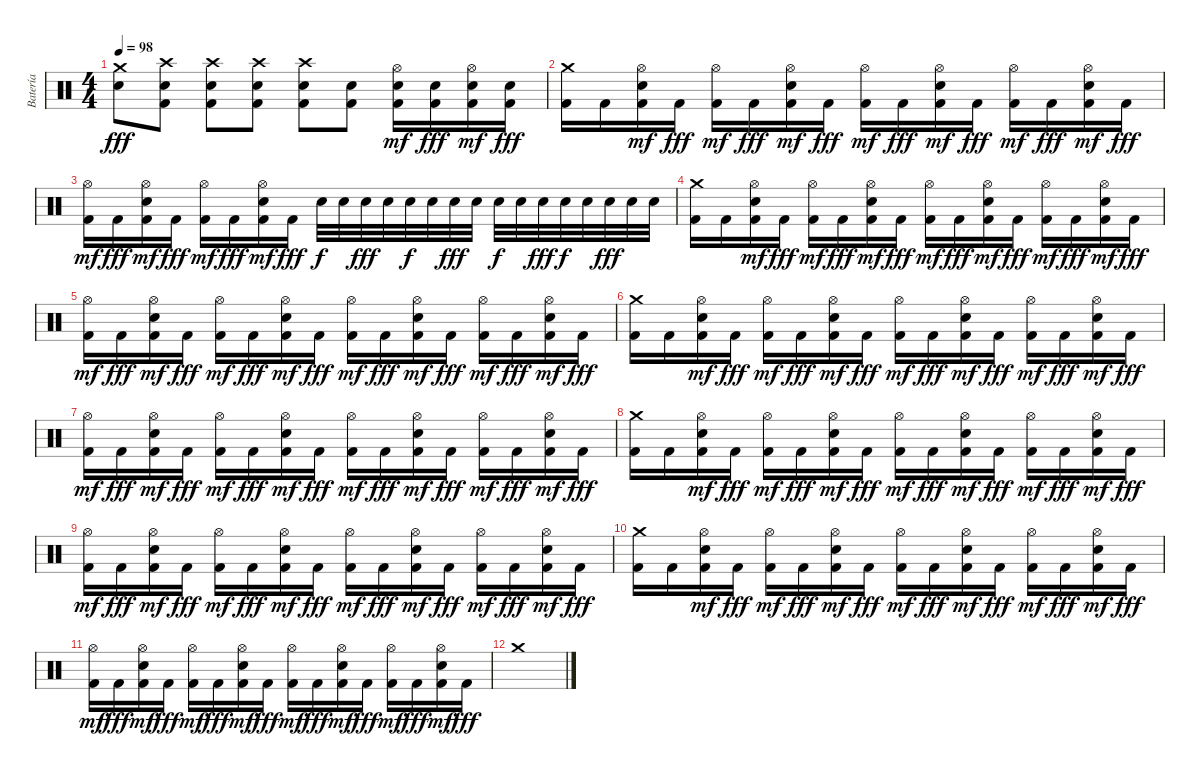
\track ("Batería" "Batería") {instrument percussion}
\staff {score}
\articulation defaults
\ts (4 4)
\tempo 98
\clef neutral
\ks c
("Electric Snare (hit)" "Crash medium (hit)").8{dy fff} ("Kick (hit) 2" "Electric Snare (hit)" "Crash high (hit)").8 ("Kick (hit) 2" "Electric Snare (hit)" "Crash high (hit)").8 ("Kick (hit) 2" "Electric Snare (hit)" "Crash high (hit)").8 ("Kick (hit) 2" "Electric Snare (hit)" "Crash high (hit)").8 ("Kick (hit) 2" "Electric Snare (hit)").8 ("Kick (hit) 2" "Electric Snare (hit)" "Hi-Hat (open)").16{dy mf} ("Kick (hit) 2" "Electric Snare (hit)").16{dy fff} ("Kick (hit) 2" "Electric Snare (hit)" "Hi-Hat (open)").16{dy mf} ("Kick (hit) 2" "Electric Snare (hit)").16{dy fff} |
("Kick (hit) 2" "Crash medium (hit)").16 "Kick (hit) 2".16 ("Kick (hit) 2" "Electric Snare (hit)" "Hi-Hat (open)").16{dy mf} "Kick (hit) 2".16{dy fff} ("Kick (hit) 2" "Hi-Hat (open)").16{dy mf} "Kick (hit) 2".16{dy fff} ("Kick (hit) 2" "Electric Snare (hit)" "Hi-Hat (open)").16{dy mf} "Kick (hit) 2".16{dy fff} ("Kick (hit) 2" "Hi-Hat (open)").16{dy mf} "Kick (hit) 2".16{dy fff} ("Kick (hit) 2" "Electric Snare (hit)" "Hi-Hat (open)").16{dy mf} "Kick (hit) 2".16{dy fff} ("Kick (hit) 2" "Hi-Hat (open)").16{dy mf} "Kick (hit) 2".16{dy fff} ("Kick (hit) 2" "Electric Snare (hit)" "Hi-Hat (open)").16{dy mf} "Kick (hit) 2".16{dy fff} |
("Kick (hit) 2" "Hi-Hat (open)").16{dy mf} "Kick (hit) 2".16{dy fff} ("Kick (hit) 2" "Electric Snare (hit)" "Hi-Hat (open)").16{dy mf} "Kick (hit) 2".16{dy fff} ("Kick (hit) 2" "Hi-Hat (open)").16{dy mf} "Kick (hit) 2".16{dy fff} ("Kick (hit) 2" "Electric Snare (hit)" "Hi-Hat (open)").16{dy mf} "Kick (hit) 2".16{dy fff} "Electric Snare (hit)".32{dy f} "Electric Snare (hit)".32 "Electric Snare (hit)".32{dy fff} "Electric Snare (hit)".32 "Electric Snare (hit)".32{dy f} "Electric Snare (hit)".32 "Electric Snare (hit)".32{dy fff} "Electric Snare (hit)".32 "Electric Snare (hit)".32{dy f} "Electric Snare (hit)".32 "Electric Snare (hit)".32{dy fff} "Electric Snare (hit)".32{dy f} "Electric Snare (hit)".32 "Electric Snare (hit)".32{dy fff} "Electric Snare (hit)".32 "Electric Snare (hit)".32 |
("Kick (hit) 2" "Crash medium (hit)").16 "Kick (hit) 2".16 ("Kick (hit) 2" "Electric Snare (hit)" "Hi-Hat (open)").16{dy mf} "Kick (hit) 2".16{dy fff} ("Kick (hit) 2" "Hi-Hat (open)").16{dy mf} "Kick (hit) 2".16{dy fff} ("Kick (hit) 2" "Electric Snare (hit)" "Hi-Hat (open)").16{dy mf} "Kick (hit) 2".16{dy fff} ("Kick (hit) 2" "Hi-Hat (open)").16{dy mf} "Kick (hit) 2".16{dy fff} ("Kick (hit) 2" "Electric Snare (hit)" "Hi-Hat (open)").16{dy mf} "Kick (hit) 2".16{dy fff} ("Kick (hit) 2" "Hi-Hat (open)").16{dy mf} "Kick (hit) 2".16{dy fff} ("Kick (hit) 2" "Electric Snare (hit)" "Hi-Hat (open)").16{dy mf} "Kick (hit) 2".16{dy fff} |
("Kick (hit) 2" "Hi-Hat (open)").16{dy mf} "Kick (hit) 2".16{dy fff} ("Kick (hit) 2" "Electric Snare (hit)" "Hi-Hat (open)").16{dy mf} "Kick (hit) 2".16{dy fff} ("Kick (hit) 2" "Hi-Hat (open)").16{dy mf} "Kick (hit) 2".16{dy fff} ("Kick (hit) 2" "Electric Snare (hit)" "Hi-Hat (open)").16{dy mf} "Kick (hit) 2".16{dy fff} ("Kick (hit) 2" "Hi-Hat (open)").16{dy mf} "Kick (hit) 2".16{dy fff} ("Kick (hit) 2" "Electric Snare (hit)" "Hi-Hat (open)").16{dy mf} "Kick (hit) 2".16{dy fff} ("Kick (hit) 2" "Hi-Hat (open)").16{dy mf} "Kick (hit) 2".16{dy fff} ("Kick (hit) 2" "Electric Snare (hit)" "Hi-Hat (open)").16{dy mf} "Kick (hit) 2".16{dy fff} |
("Kick (hit) 2" "Crash medium (hit)").16 "Kick (hit) 2".16 ("Kick (hit) 2" "Electric Snare (hit)" "Hi-Hat (open)").16{dy mf} "Kick (hit) 2".16{dy fff} ("Kick (hit) 2" "Hi-Hat (open)").16{dy mf} "Kick (hit) 2".16{dy fff} ("Kick (hit) 2" "Electric Snare (hit)" "Hi-Hat (open)").16{dy mf} "Kick (hit) 2".16{dy fff} ("Kick (hit) 2" "Hi-Hat (open)").16{dy mf} "Kick (hit) 2".16{dy fff} ("Kick (hit) 2" "Electric Snare (hit)" "Hi-Hat (open)").16{dy mf} "Kick (hit) 2".16{dy fff} ("Kick (hit) 2" "Hi-Hat (open)").16{dy mf} "Kick (hit) 2".16{dy fff} ("Kick (hit) 2" "Electric Snare (hit)" "Hi-Hat (open)").16{dy mf} "Kick (hit) 2".16{dy fff} |
("Kick (hit) 2" "Hi-Hat (open)").16{dy mf} "Kick (hit) 2".16{dy fff} ("Kick (hit) 2" "Electric Snare (hit)" "Hi-Hat (open)").16{dy mf} "Kick (hit) 2".16{dy fff} ("Kick (hit) 2" "Hi-Hat (open)").16{dy mf} "Kick (hit) 2".16{dy fff} ("Kick (hit) 2" "Electric Snare (hit)" "Hi-Hat (open)").16{dy mf} "Kick (hit) 2".16{dy fff} ("Kick (hit) 2" "Hi-Hat (open)").16{dy mf} "Kick (hit) 2".16{dy fff} ("Kick (hit) 2" "Electric Snare (hit)" "Hi-Hat (open)").16{dy mf} "Kick (hit) 2".16{dy fff} ("Kick (hit) 2" "Hi-Hat (open)").16{dy mf} "Kick (hit) 2".16{dy fff} ("Kick (hit) 2" "Electric Snare (hit)" "Hi-Hat (open)").16{dy mf} "Kick (hit) 2".16{dy fff} |
("Kick (hit) 2" "Crash medium (hit)").16 "Kick (hit) 2".16 ("Kick (hit) 2" "Electric Snare (hit)" "Hi-Hat (open)").16{dy mf} "Kick (hit) 2".16{dy fff} ("Kick (hit) 2" "Hi-Hat (open)").16{dy mf} "Kick (hit) 2".16{dy fff} ("Kick (hit) 2" "Electric Snare (hit)" "Hi-Hat (open)").16{dy mf} "Kick (hit) 2".16{dy fff} ("Kick (hit) 2" "Hi-Hat (open)").16{dy mf} "Kick (hit) 2".16{dy fff} ("Kick (hit) 2" "Electric Snare (hit)" "Hi-Hat (open)").16{dy mf} "Kick (hit) 2".16{dy fff} ("Kick (hit) 2" "Hi-Hat (open)").16{dy mf} "Kick (hit) 2".16{dy fff} ("Kick (hit) 2" "Electric Snare (hit)" "Hi-Hat (open)").16{dy mf} "Kick (hit) 2".16{dy fff} |
("Kick (hit) 2" "Hi-Hat (open)").16{dy mf} "Kick (hit) 2".16{dy fff} ("Kick (hit) 2" "Electric Snare (hit)" "Hi-Hat (open)").16{dy mf} "Kick (hit) 2".16{dy fff} ("Kick (hit) 2" "Hi-Hat (open)").16{dy mf} "Kick (hit) 2".16{dy fff} ("Kick (hit) 2" "Electric Snare (hit)" "Hi-Hat (open)").16{dy mf} "Kick (hit) 2".16{dy fff} ("Kick (hit) 2" "Hi-Hat (open)").16{dy mf} "Kick (hit) 2".16{dy fff} ("Kick (hit) 2" "Electric Snare (hit)" "Hi-Hat (open)").16{dy mf} "Kick (hit) 2".16{dy fff} ("Kick (hit) 2" "Hi-Hat (open)").16{dy mf} "Kick (hit) 2".16{dy fff} ("Kick (hit) 2" "Electric Snare (hit)" "Hi-Hat (open)").16{dy mf} "Kick (hit) 2".16{dy fff} |
("Kick (hit) 2" "Crash medium (hit)").16 "Kick (hit) 2".16 ("Kick (hit) 2" "Electric Snare (hit)" "Hi-Hat (open)").16{dy mf} "Kick (hit) 2".16{dy fff} ("Kick (hit) 2" "Hi-Hat (open)").16{dy mf} "Kick (hit) 2".16{dy fff} ("Kick (hit) 2" "Electric Snare (hit)" "Hi-Hat (open)").16{dy mf} "Kick (hit) 2".16{dy fff} ("Kick (hit) 2" "Hi-Hat (open)").16{dy mf} "Kick (hit) 2".16{dy fff} ("Kick (hit) 2" "Electric Snare (hit)" "Hi-Hat (open)").16{dy mf} "Kick (hit) 2".16{dy fff} ("Kick (hit) 2" "Hi-Hat (open)").16{dy mf} "Kick (hit) 2".16{dy fff} ("Kick (hit) 2" "Electric Snare (hit)" "Hi-Hat (open)").16{dy mf} "Kick (hit) 2".16{dy fff} |
("Kick (hit) 2" "Hi-Hat (open)").16{dy mf} "Kick (hit) 2".16{dy fff} ("Kick (hit) 2" "Electric Snare (hit)" "Hi-Hat (open)").16{dy mf} "Kick (hit) 2".16{dy fff} ("Kick (hit) 2" "Hi-Hat (open)").16{dy mf} "Kick (hit) 2".16{dy fff} ("Kick (hit) 2" "Electric Snare (hit)" "Hi-Hat (open)").16{dy mf} "Kick (hit) 2".16{dy fff} ("Kick (hit) 2" "Hi-Hat (open)").16{dy mf} "Kick (hit) 2".16{dy fff} ("Kick (hit) 2" "Electric Snare (hit)" "Hi-Hat (open)").16{dy mf} "Kick (hit) 2".16{dy fff} ("Kick (hit) 2" "Hi-Hat (open)").16{dy mf} "Kick (hit) 2".16{dy fff} ("Kick (hit) 2" "Electric Snare (hit)" "Hi-Hat (open)").16{dy mf} "Kick (hit) 2".16{dy fff} |
"Crash medium (hit)".1
